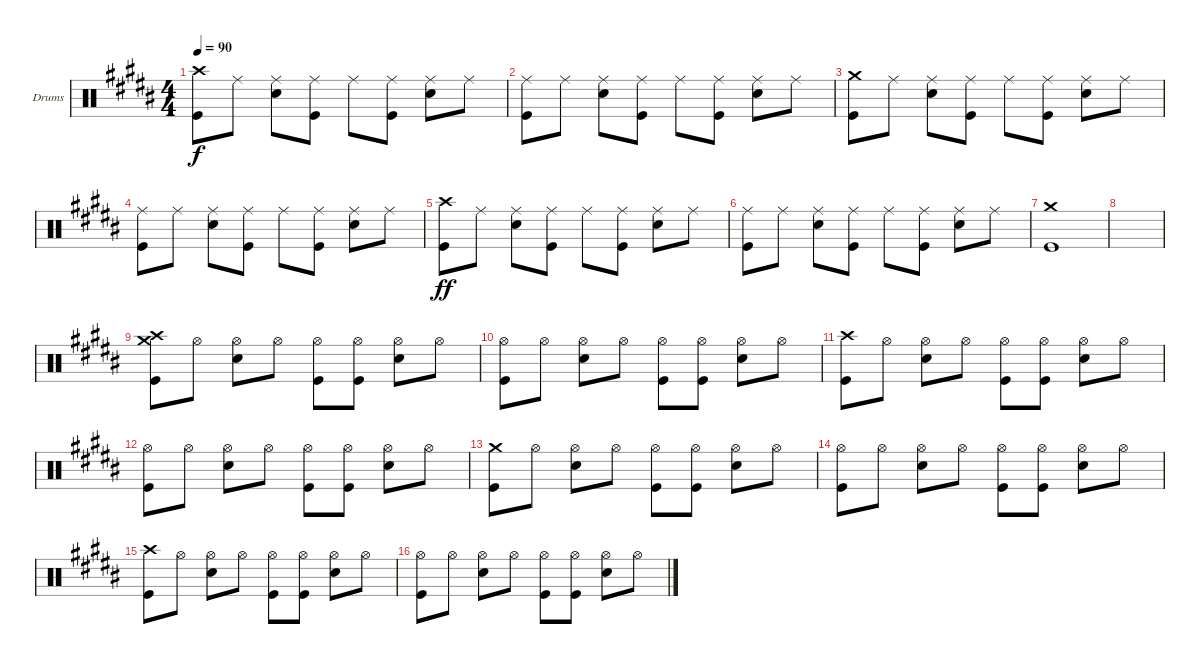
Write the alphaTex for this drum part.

\defaultSystemsLayout 4
\bracketExtendMode groupsimilarinstruments
\firstSystemTrackNameOrientation horizontal
\otherSystemsTrackNameOrientation horizontal
\track ("Drumkit" "Drums") {instrument percussion}
\staff {score}
\articulation defaults
\ts (4 4)
\tempo 90
\clef neutral
\ks b
("Kick (hit)" "Crash high (hit)").8{dy f} "Ride (middle)".8 ("Ride (middle)" "Snare (hit) 2").8 ("Ride (middle)" "Kick (hit)").8 "Ride (middle)".8 ("Ride (middle)" "Kick (hit)").8 ("Ride (middle)" "Snare (hit) 2").8 "Ride (middle)".8 |
("Kick (hit)" "Ride (middle)").8 "Ride (middle)".8 ("Ride (middle)" "Snare (hit) 2").8 ("Ride (middle)" "Kick (hit)").8 "Ride (middle)".8 ("Ride (middle)" "Kick (hit)").8 ("Ride (middle)" "Snare (hit) 2").8 "Ride (middle)".8 |
("Kick (hit)" "Crash medium (hit)").8 "Ride (middle)".8 ("Ride (middle)" "Snare (hit) 2").8 ("Ride (middle)" "Kick (hit)").8 "Ride (middle)".8 ("Ride (middle)" "Kick (hit)").8 ("Ride (middle)" "Snare (hit) 2").8 "Ride (middle)".8 |
("Kick (hit)" "Ride (middle)").8 "Ride (middle)".8 ("Ride (middle)" "Snare (hit) 2").8 ("Ride (middle)" "Kick (hit)").8 "Ride (middle)".8 ("Ride (middle)" "Kick (hit)").8 ("Ride (middle)" "Snare (hit) 2").8 "Ride (middle)".8 |
("Kick (hit)" "Crash high (hit)").8{dy ff} "Ride (middle)".8 ("Ride (middle)" "Snare (hit) 2").8 ("Ride (middle)" "Kick (hit)").8 "Ride (middle)".8 ("Ride (middle)" "Kick (hit)").8 ("Ride (middle)" "Snare (hit) 2").8 "Ride (middle)".8 |
("Kick (hit)" "Ride (middle)").8 "Ride (middle)".8 ("Ride (middle)" "Snare (hit) 2").8 ("Ride (middle)" "Kick (hit)").8 "Ride (middle)".8 ("Ride (middle)" "Kick (hit)").8 ("Ride (middle)" "Snare (hit) 2").8 "Ride (middle)".8 |
("Crash medium (hit)" "Kick (hit)").1 |
|
("Crash high (hit)" "Crash medium (hit)" "Kick (hit)").8 "Hi-Hat (open)".8 ("Hi-Hat (open)" "Snare (hit) 2").8 "Hi-Hat (open)".8 ("Hi-Hat (open)" "Kick (hit)").8 ("Hi-Hat (open)" "Kick (hit)").8 ("Hi-Hat (open)" "Snare (hit) 2").8 "Hi-Hat (open)".8 |
("Kick (hit)" "Hi-Hat (open)").8 "Hi-Hat (open)".8 ("Hi-Hat (open)" "Snare (hit) 2").8 "Hi-Hat (open)".8 ("Hi-Hat (open)" "Kick (hit)").8 ("Hi-Hat (open)" "Kick (hit)").8 ("Hi-Hat (open)" "Snare (hit) 2").8 "Hi-Hat (open)".8 |
("Crash high (hit)" "Kick (hit)").8 "Hi-Hat (open)".8 ("Hi-Hat (open)" "Snare (hit) 2").8 "Hi-Hat (open)".8 ("Hi-Hat (open)" "Kick (hit)").8 ("Hi-Hat (open)" "Kick (hit)").8 ("Hi-Hat (open)" "Snare (hit) 2").8 "Hi-Hat (open)".8 |
("Kick (hit)" "Hi-Hat (open)").8 "Hi-Hat (open)".8 ("Hi-Hat (open)" "Snare (hit) 2").8 "Hi-Hat (open)".8 ("Hi-Hat (open)" "Kick (hit)").8 ("Hi-Hat (open)" "Kick (hit)").8 ("Hi-Hat (open)" "Snare (hit) 2").8 "Hi-Hat (open)".8 |
("Crash medium (hit)" "Kick (hit)").8 "Hi-Hat (open)".8 ("Hi-Hat (open)" "Snare (hit) 2").8 "Hi-Hat (open)".8 ("Hi-Hat (open)" "Kick (hit)").8 ("Hi-Hat (open)" "Kick (hit)").8 ("Hi-Hat (open)" "Snare (hit) 2").8 "Hi-Hat (open)".8 |
("Kick (hit)" "Hi-Hat (open)").8 "Hi-Hat (open)".8 ("Hi-Hat (open)" "Snare (hit) 2").8 "Hi-Hat (open)".8 ("Hi-Hat (open)" "Kick (hit)").8 ("Hi-Hat (open)" "Kick (hit)").8 ("Hi-Hat (open)" "Snare (hit) 2").8 "Hi-Hat (open)".8 |
("Crash high (hit)" "Kick (hit)").8 "Hi-Hat (open)".8 ("Hi-Hat (open)" "Snare (hit) 2").8 "Hi-Hat (open)".8 ("Hi-Hat (open)" "Kick (hit)").8 ("Hi-Hat (open)" "Kick (hit)").8 ("Hi-Hat (open)" "Snare (hit) 2").8 "Hi-Hat (open)".8 |
("Kick (hit)" "Hi-Hat (open)").8 "Hi-Hat (open)".8 ("Hi-Hat (open)" "Snare (hit) 2").8 "Hi-Hat (open)".8 ("Hi-Hat (open)" "Kick (hit)").8 ("Hi-Hat (open)" "Kick (hit)").8 ("Hi-Hat (open)" "Snare (hit) 2").8 "Hi-Hat (open)".8
